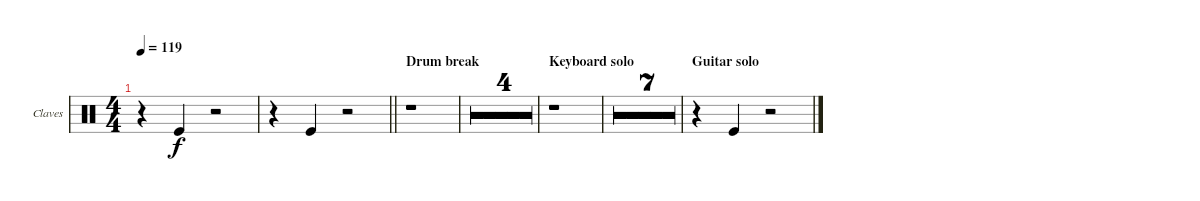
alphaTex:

\defaultSystemsLayout 4
\bracketExtendMode groupsimilarinstruments
\useSystemSignSeparator
\multiBarRest
\multiTrackTrackNamePolicy allsystems
\firstSystemTrackNameMode fullname
\firstSystemTrackNameOrientation horizontal
\otherSystemsTrackNameOrientation horizontal
\defaultBarNumberDisplay FirstOfSystem
\track ("Claves" "Claves") {multiBarRest instrument percussion}
\staff {score}
\articulation defaults
\ts (4 4)
\tempo 119
\clef neutral
\ks aminor
r.4{dy f} "Kick (hit)".4 r.2 |
\barLineRight lightlight
r.4 "Kick (hit)".4 r.2 |
\section ("" "Drum break")
r.1 |
r.1 |
r.1 |
r.1 |
\barLineRight lightlight
r.1 |
\section ("" "Keyboard solo")
r.1 |
r.1 |
r.1 |
r.1 |
r.1 |
r.1 |
r.1 |
\barLineRight lightlight
r.1 |
\section ("" "Guitar solo")
r.4 "Kick (hit)".4 r.2
